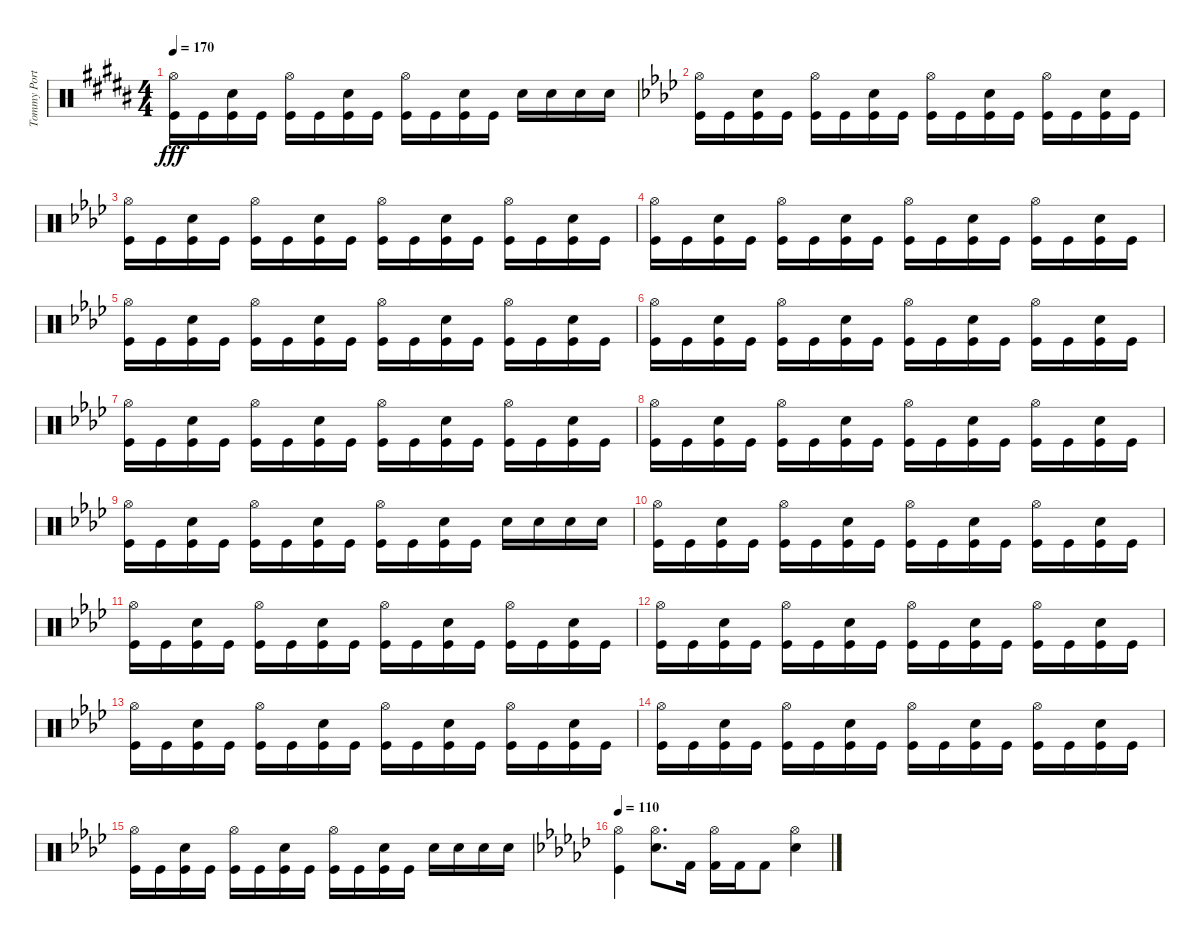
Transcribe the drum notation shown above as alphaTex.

\track ("Tommy Portimo (Percussion)" "Tommy Port") {instrument percussion}
\staff {score}
\articulation defaults
\ts (4 4)
\tempo 170
\clef neutral
\ks b
("Kick (hit)" "Hi-Hat (open)").16{dy fff} "Kick (hit)".16 ("Kick (hit)" "Electric Snare (hit)").16 "Kick (hit)".16 ("Kick (hit)" "Hi-Hat (open)").16 "Kick (hit)".16 ("Kick (hit)" "Electric Snare (hit)").16 "Kick (hit)".16 ("Kick (hit)" "Hi-Hat (open)").16 "Kick (hit)".16 ("Kick (hit)" "Electric Snare (hit)").16 "Kick (hit)".16 "Electric Snare (hit)".16 "Electric Snare (hit)".16 "Electric Snare (hit)".16 "Electric Snare (hit)".16 |
\ks ab
("Kick (hit)" "Hi-Hat (open)").16 "Kick (hit)".16 ("Kick (hit)" "Electric Snare (hit)").16 "Kick (hit)".16 ("Kick (hit)" "Hi-Hat (open)").16 "Kick (hit)".16 ("Kick (hit)" "Electric Snare (hit)").16 "Kick (hit)".16 ("Kick (hit)" "Hi-Hat (open)").16 "Kick (hit)".16 ("Kick (hit)" "Electric Snare (hit)").16 "Kick (hit)".16 ("Kick (hit)" "Hi-Hat (open)").16 "Kick (hit)".16 ("Kick (hit)" "Electric Snare (hit)").16 "Kick (hit)".16 |
("Kick (hit)" "Hi-Hat (open)").16 "Kick (hit)".16 ("Kick (hit)" "Electric Snare (hit)").16 "Kick (hit)".16 ("Kick (hit)" "Hi-Hat (open)").16 "Kick (hit)".16 ("Kick (hit)" "Electric Snare (hit)").16 "Kick (hit)".16 ("Kick (hit)" "Hi-Hat (open)").16 "Kick (hit)".16 ("Kick (hit)" "Electric Snare (hit)").16 "Kick (hit)".16 ("Kick (hit)" "Hi-Hat (open)").16 "Kick (hit)".16 ("Kick (hit)" "Electric Snare (hit)").16 "Kick (hit)".16 |
("Kick (hit)" "Hi-Hat (open)").16 "Kick (hit)".16 ("Kick (hit)" "Electric Snare (hit)").16 "Kick (hit)".16 ("Kick (hit)" "Hi-Hat (open)").16 "Kick (hit)".16 ("Kick (hit)" "Electric Snare (hit)").16 "Kick (hit)".16 ("Kick (hit)" "Hi-Hat (open)").16 "Kick (hit)".16 ("Kick (hit)" "Electric Snare (hit)").16 "Kick (hit)".16 ("Kick (hit)" "Hi-Hat (open)").16 "Kick (hit)".16 ("Kick (hit)" "Electric Snare (hit)").16 "Kick (hit)".16 |
("Kick (hit)" "Hi-Hat (open)").16 "Kick (hit)".16 ("Kick (hit)" "Electric Snare (hit)").16 "Kick (hit)".16 ("Kick (hit)" "Hi-Hat (open)").16 "Kick (hit)".16 ("Kick (hit)" "Electric Snare (hit)").16 "Kick (hit)".16 ("Kick (hit)" "Hi-Hat (open)").16 "Kick (hit)".16 ("Kick (hit)" "Electric Snare (hit)").16 "Kick (hit)".16 ("Kick (hit)" "Hi-Hat (open)").16 "Kick (hit)".16 ("Kick (hit)" "Electric Snare (hit)").16 "Kick (hit)".16 |
("Kick (hit)" "Hi-Hat (open)").16 "Kick (hit)".16 ("Kick (hit)" "Electric Snare (hit)").16 "Kick (hit)".16 ("Kick (hit)" "Hi-Hat (open)").16 "Kick (hit)".16 ("Kick (hit)" "Electric Snare (hit)").16 "Kick (hit)".16 ("Kick (hit)" "Hi-Hat (open)").16 "Kick (hit)".16 ("Kick (hit)" "Electric Snare (hit)").16 "Kick (hit)".16 ("Kick (hit)" "Hi-Hat (open)").16 "Kick (hit)".16 ("Kick (hit)" "Electric Snare (hit)").16 "Kick (hit)".16 |
("Kick (hit)" "Hi-Hat (open)").16 "Kick (hit)".16 ("Kick (hit)" "Electric Snare (hit)").16 "Kick (hit)".16 ("Kick (hit)" "Hi-Hat (open)").16 "Kick (hit)".16 ("Kick (hit)" "Electric Snare (hit)").16 "Kick (hit)".16 ("Kick (hit)" "Hi-Hat (open)").16 "Kick (hit)".16 ("Kick (hit)" "Electric Snare (hit)").16 "Kick (hit)".16 ("Kick (hit)" "Hi-Hat (open)").16 "Kick (hit)".16 ("Kick (hit)" "Electric Snare (hit)").16 "Kick (hit)".16 |
("Kick (hit)" "Hi-Hat (open)").16 "Kick (hit)".16 ("Kick (hit)" "Electric Snare (hit)").16 "Kick (hit)".16 ("Kick (hit)" "Hi-Hat (open)").16 "Kick (hit)".16 ("Kick (hit)" "Electric Snare (hit)").16 "Kick (hit)".16 ("Kick (hit)" "Hi-Hat (open)").16 "Kick (hit)".16 ("Kick (hit)" "Electric Snare (hit)").16 "Kick (hit)".16 ("Kick (hit)" "Hi-Hat (open)").16 "Kick (hit)".16 ("Kick (hit)" "Electric Snare (hit)").16 "Kick (hit)".16 |
("Kick (hit)" "Hi-Hat (open)").16 "Kick (hit)".16 ("Kick (hit)" "Electric Snare (hit)").16 "Kick (hit)".16 ("Kick (hit)" "Hi-Hat (open)").16 "Kick (hit)".16 ("Kick (hit)" "Electric Snare (hit)").16 "Kick (hit)".16 ("Kick (hit)" "Hi-Hat (open)").16 "Kick (hit)".16 ("Kick (hit)" "Electric Snare (hit)").16 "Kick (hit)".16 "Electric Snare (hit)".16 "Electric Snare (hit)".16 "Electric Snare (hit)".16 "Electric Snare (hit)".16 |
("Kick (hit)" "Hi-Hat (open)").16 "Kick (hit)".16 ("Kick (hit)" "Electric Snare (hit)").16 "Kick (hit)".16 ("Kick (hit)" "Hi-Hat (open)").16 "Kick (hit)".16 ("Kick (hit)" "Electric Snare (hit)").16 "Kick (hit)".16 ("Kick (hit)" "Hi-Hat (open)").16 "Kick (hit)".16 ("Kick (hit)" "Electric Snare (hit)").16 "Kick (hit)".16 ("Kick (hit)" "Hi-Hat (open)").16 "Kick (hit)".16 ("Kick (hit)" "Electric Snare (hit)").16 "Kick (hit)".16 |
("Kick (hit)" "Hi-Hat (open)").16 "Kick (hit)".16 ("Kick (hit)" "Electric Snare (hit)").16 "Kick (hit)".16 ("Kick (hit)" "Hi-Hat (open)").16 "Kick (hit)".16 ("Kick (hit)" "Electric Snare (hit)").16 "Kick (hit)".16 ("Kick (hit)" "Hi-Hat (open)").16 "Kick (hit)".16 ("Kick (hit)" "Electric Snare (hit)").16 "Kick (hit)".16 ("Kick (hit)" "Hi-Hat (open)").16 "Kick (hit)".16 ("Kick (hit)" "Electric Snare (hit)").16 "Kick (hit)".16 |
("Kick (hit)" "Hi-Hat (open)").16 "Kick (hit)".16 ("Kick (hit)" "Electric Snare (hit)").16 "Kick (hit)".16 ("Kick (hit)" "Hi-Hat (open)").16 "Kick (hit)".16 ("Kick (hit)" "Electric Snare (hit)").16 "Kick (hit)".16 ("Kick (hit)" "Hi-Hat (open)").16 "Kick (hit)".16 ("Kick (hit)" "Electric Snare (hit)").16 "Kick (hit)".16 ("Kick (hit)" "Hi-Hat (open)").16 "Kick (hit)".16 ("Kick (hit)" "Electric Snare (hit)").16 "Kick (hit)".16 |
("Kick (hit)" "Hi-Hat (open)").16 "Kick (hit)".16 ("Kick (hit)" "Electric Snare (hit)").16 "Kick (hit)".16 ("Kick (hit)" "Hi-Hat (open)").16 "Kick (hit)".16 ("Kick (hit)" "Electric Snare (hit)").16 "Kick (hit)".16 ("Kick (hit)" "Hi-Hat (open)").16 "Kick (hit)".16 ("Kick (hit)" "Electric Snare (hit)").16 "Kick (hit)".16 ("Kick (hit)" "Hi-Hat (open)").16 "Kick (hit)".16 ("Kick (hit)" "Electric Snare (hit)").16 "Kick (hit)".16 |
("Kick (hit)" "Hi-Hat (open)").16 "Kick (hit)".16 ("Kick (hit)" "Electric Snare (hit)").16 "Kick (hit)".16 ("Kick (hit)" "Hi-Hat (open)").16 "Kick (hit)".16 ("Kick (hit)" "Electric Snare (hit)").16 "Kick (hit)".16 ("Kick (hit)" "Hi-Hat (open)").16 "Kick (hit)".16 ("Kick (hit)" "Electric Snare (hit)").16 "Kick (hit)".16 ("Kick (hit)" "Hi-Hat (open)").16 "Kick (hit)".16 ("Kick (hit)" "Electric Snare (hit)").16 "Kick (hit)".16 |
("Kick (hit)" "Hi-Hat (open)").16 "Kick (hit)".16 ("Kick (hit)" "Electric Snare (hit)").16 "Kick (hit)".16 ("Kick (hit)" "Hi-Hat (open)").16 "Kick (hit)".16 ("Kick (hit)" "Electric Snare (hit)").16 "Kick (hit)".16 ("Kick (hit)" "Hi-Hat (open)").16 "Kick (hit)".16 ("Kick (hit)" "Electric Snare (hit)").16 "Kick (hit)".16 "Electric Snare (hit)".16 "Electric Snare (hit)".16 "Electric Snare (hit)".16 "Electric Snare (hit)".16 |
\tempo 110
\ks gb
("Kick (hit)" "Hi-Hat (open)").4 ("Electric Snare (hit)" "Hi-Hat (open)").8{d} "Kick (hit) 2".16 ("Hi-Hat (open)" "Kick (hit) 2").16 "Kick (hit) 2".16 "Kick (hit) 2".8 ("Hi-Hat (open)" "Electric Snare (hit)").4
